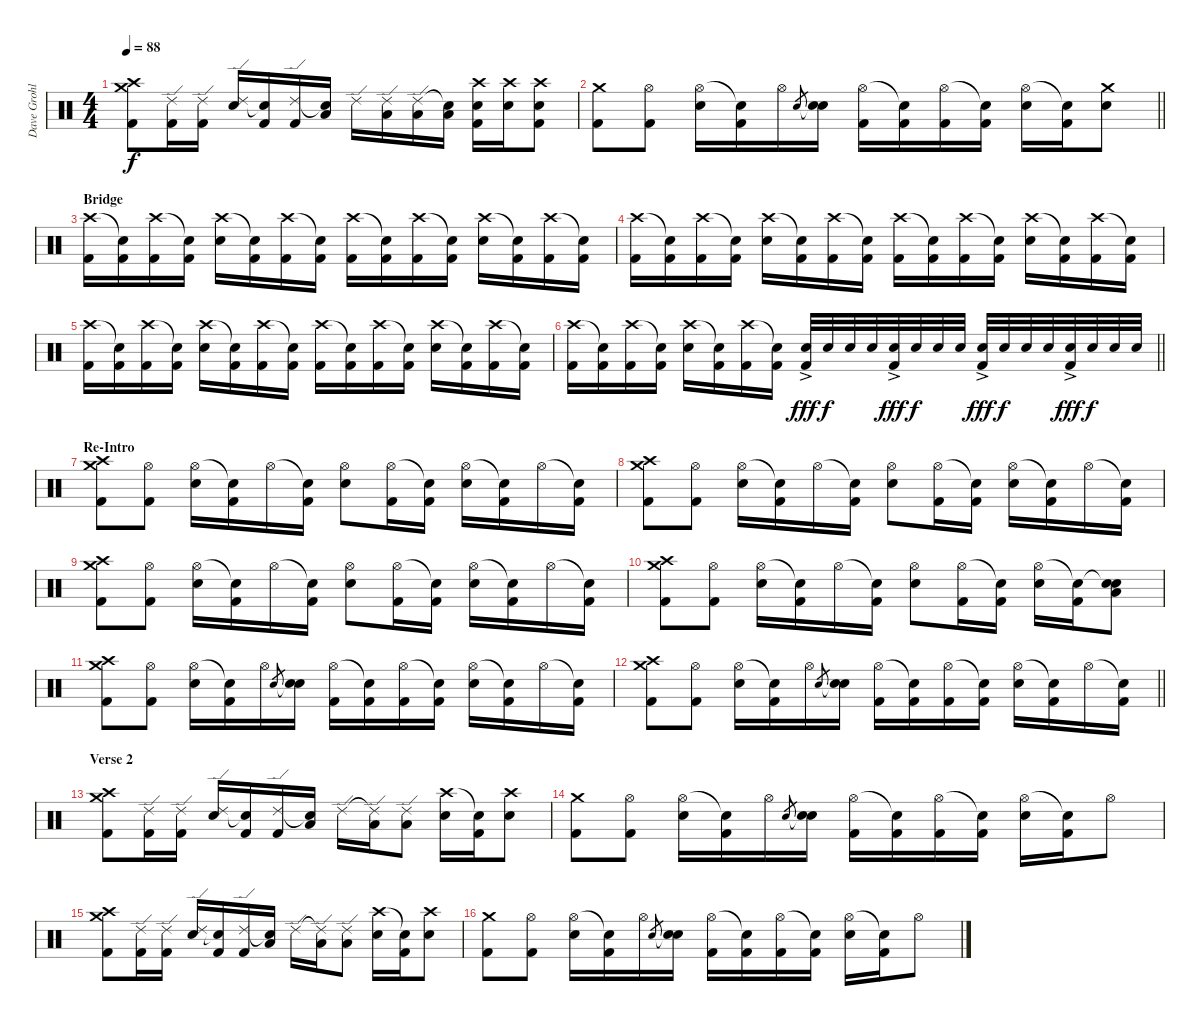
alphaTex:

\track ("Dave Grohl - Drums" "Dave Grohl") {instrument percussion}
\staff {score}
\articulation defaults
\ts (4 4)
\tempo 88
\clef neutral
\ks c
("Crash high (hit)" "Crash medium (hit)" "Kick (hit) 2").8{dy f} ("Ride (edge) 2" "Kick (hit) 2").16 ("Ride (edge) 2" "Kick (hit) 2").16 ("Ride (edge) 2" "Electric Snare (hit)").16 ("Snare (hit)"{t} "Kick (hit) 2").16 ("Ride (edge) 2" "Kick (hit) 2").16 ("Snare (hit)"{t} "Low Tom (hit)").16 "Ride (edge) 2".16 ("Ride (edge) 2" "Low Floor Tom (hit)").16 ("Ride (edge) 2" "Low Floor Tom (hit)").16 ("Snare (hit)"{t} "Low Floor Tom (hit)").16 ("Crash high (hit)" "Electric Snare (hit)" "Kick (hit) 2").16 ("Crash high (hit)" "Electric Snare (hit)").16 ("Crash high (hit)" "Electric Snare (hit)" "Kick (hit) 2").8 |
\barLineRight lightlight
("Crash medium (hit)" "Kick (hit) 2").8 ("Hi-Hat (open)" "Kick (hit) 2").8 ("Hi-Hat (open)" "Electric Snare (hit)").16 ("Snare (hit)"{t} "Kick (hit) 2").16 "Hi-Hat (open)".16 "Electric Snare (hit)".8{gr} ("Snare (hit)"{t} "Electric Snare (hit)").16 ("Hi-Hat (open)" "Kick (hit) 2").16 ("Snare (hit)"{t} "Kick (hit) 2").16 ("Hi-Hat (open)" "Kick (hit) 2").16 ("Snare (hit)"{t} "Kick (hit) 2").16 ("Hi-Hat (open)" "Electric Snare (hit)").16 ("Snare (hit)"{t} "Kick (hit) 2").16 ("Crash medium (hit)" "Electric Snare (hit)").8 |
\section ("" "Bridge")
("Crash high (hit)" "Kick (hit) 2").16 ("Snare (hit)"{t} "Kick (hit) 2").16 ("Crash high (hit)" "Kick (hit) 2").16 ("Snare (hit)"{t} "Kick (hit) 2").16 ("Crash high (hit)" "Electric Snare (hit)").16 ("Snare (hit)"{t} "Kick (hit) 2").16 ("Crash high (hit)" "Kick (hit) 2").16 ("Snare (hit)"{t} "Kick (hit) 2").16 ("Crash high (hit)" "Kick (hit) 2").16 ("Snare (hit)"{t} "Kick (hit) 2").16 ("Crash high (hit)" "Kick (hit) 2").16 ("Snare (hit)"{t} "Kick (hit) 2").16 ("Crash high (hit)" "Electric Snare (hit)").16 ("Snare (hit)"{t} "Kick (hit) 2").16 ("Crash high (hit)" "Kick (hit) 2").16 ("Snare (hit)"{t} "Kick (hit) 2").16 |
("Crash high (hit)" "Kick (hit) 2").16 ("Snare (hit)"{t} "Kick (hit) 2").16 ("Crash high (hit)" "Kick (hit) 2").16 ("Snare (hit)"{t} "Kick (hit) 2").16 ("Crash high (hit)" "Electric Snare (hit)").16 ("Snare (hit)"{t} "Kick (hit) 2").16 ("Crash high (hit)" "Kick (hit) 2").16 ("Snare (hit)"{t} "Kick (hit) 2").16 ("Crash high (hit)" "Kick (hit) 2").16 ("Snare (hit)"{t} "Kick (hit) 2").16 ("Crash high (hit)" "Kick (hit) 2").16 ("Snare (hit)"{t} "Kick (hit) 2").16 ("Crash high (hit)" "Electric Snare (hit)").16 ("Snare (hit)"{t} "Kick (hit) 2").16 ("Crash high (hit)" "Kick (hit) 2").16 ("Snare (hit)"{t} "Kick (hit) 2").16 |
("Crash high (hit)" "Kick (hit) 2").16 ("Snare (hit)"{t} "Kick (hit) 2").16 ("Crash high (hit)" "Kick (hit) 2").16 ("Snare (hit)"{t} "Kick (hit) 2").16 ("Crash high (hit)" "Electric Snare (hit)").16 ("Snare (hit)"{t} "Kick (hit) 2").16 ("Crash high (hit)" "Kick (hit) 2").16 ("Snare (hit)"{t} "Kick (hit) 2").16 ("Crash high (hit)" "Kick (hit) 2").16 ("Snare (hit)"{t} "Kick (hit) 2").16 ("Crash high (hit)" "Kick (hit) 2").16 ("Snare (hit)"{t} "Kick (hit) 2").16 ("Crash high (hit)" "Electric Snare (hit)").16 ("Snare (hit)"{t} "Kick (hit) 2").16 ("Crash high (hit)" "Kick (hit) 2").16 ("Snare (hit)"{t} "Kick (hit) 2").16 |
\barLineRight lightlight
("Crash high (hit)" "Kick (hit) 2").16 ("Snare (hit)"{t} "Kick (hit) 2").16 ("Crash high (hit)" "Kick (hit) 2").16 ("Snare (hit)"{t} "Kick (hit) 2").16 ("Crash high (hit)" "Electric Snare (hit)").16 ("Snare (hit)"{t} "Kick (hit) 2").16 ("Crash high (hit)" "Kick (hit) 2").16 ("Snare (hit)"{t} "Kick (hit) 2").16 ("Electric Snare (hit)"{ac} "Kick (hit) 2").32{dy fff} "Electric Snare (hit)".32{dy f} "Electric Snare (hit)".32 "Electric Snare (hit)".32 ("Electric Snare (hit)"{ac} "Kick (hit) 2").32{dy fff} "Electric Snare (hit)".32{dy f} "Electric Snare (hit)".32 "Electric Snare (hit)".32 ("Electric Snare (hit)"{ac} "Kick (hit) 2").32{dy fff} "Electric Snare (hit)".32{dy f} "Electric Snare (hit)".32 "Electric Snare (hit)".32 ("Electric Snare (hit)"{ac} "Kick (hit) 2").32{dy fff} "Electric Snare (hit)".32{dy f} "Electric Snare (hit)".32 "Electric Snare (hit)".32 |
\section ("" "Re-Intro")
("Crash high (hit)" "Crash medium (hit)" "Kick (hit) 2").8 ("Hi-Hat (open)" "Kick (hit) 2").8 ("Hi-Hat (open)" "Electric Snare (hit)").16 ("Snare (hit)"{t} "Kick (hit) 2").16 "Hi-Hat (open)".16 ("Snare (hit)"{t} "Kick (hit) 2").16 ("Hi-Hat (open)" "Electric Snare (hit)").8 ("Hi-Hat (open)" "Kick (hit) 2").16 ("Snare (hit)"{t} "Kick (hit) 2").16 ("Hi-Hat (open)" "Electric Snare (hit)").16 ("Snare (hit)"{t} "Kick (hit) 2").16 "Hi-Hat (open)".16 ("Snare (hit)"{t} "Kick (hit) 2").16 |
("Crash high (hit)" "Crash medium (hit)" "Kick (hit) 2").8 ("Hi-Hat (open)" "Kick (hit) 2").8 ("Hi-Hat (open)" "Electric Snare (hit)").16 ("Snare (hit)"{t} "Kick (hit) 2").16 "Hi-Hat (open)".16 ("Snare (hit)"{t} "Kick (hit) 2").16 ("Hi-Hat (open)" "Electric Snare (hit)").8 ("Hi-Hat (open)" "Kick (hit) 2").16 ("Snare (hit)"{t} "Kick (hit) 2").16 ("Hi-Hat (open)" "Electric Snare (hit)").16 ("Snare (hit)"{t} "Kick (hit) 2").16 "Hi-Hat (open)".16 ("Snare (hit)"{t} "Kick (hit) 2").16 |
("Crash high (hit)" "Crash medium (hit)" "Kick (hit) 2").8 ("Hi-Hat (open)" "Kick (hit) 2").8 ("Hi-Hat (open)" "Electric Snare (hit)").16 ("Snare (hit)"{t} "Kick (hit) 2").16 "Hi-Hat (open)".16 ("Snare (hit)"{t} "Kick (hit) 2").16 ("Hi-Hat (open)" "Electric Snare (hit)").8 ("Hi-Hat (open)" "Kick (hit) 2").16 ("Snare (hit)"{t} "Kick (hit) 2").16 ("Hi-Hat (open)" "Electric Snare (hit)").16 ("Snare (hit)"{t} "Kick (hit) 2").16 "Hi-Hat (open)".16 ("Snare (hit)"{t} "Kick (hit) 2").16 |
("Crash high (hit)" "Crash medium (hit)" "Kick (hit) 2").8 ("Hi-Hat (open)" "Kick (hit) 2").8 ("Hi-Hat (open)" "Electric Snare (hit)").16 ("Snare (hit)"{t} "Kick (hit) 2").16 "Hi-Hat (open)".16 ("Snare (hit)"{t} "Kick (hit) 2").16 ("Hi-Hat (open)" "Electric Snare (hit)").8 ("Hi-Hat (open)" "Kick (hit) 2").16 ("Snare (hit)"{t} "Kick (hit) 2").16 ("Hi-Hat (open)" "Electric Snare (hit)").16 ("Snare (hit)"{t} "Kick (hit) 2").16 ("Snare (hit)"{t} "Low Floor Tom (hit)" "Electric Snare (hit)").8 |
("Crash high (hit)" "Crash medium (hit)" "Kick (hit) 2").8 ("Hi-Hat (open)" "Kick (hit) 2").8 ("Hi-Hat (open)" "Electric Snare (hit)").16 ("Snare (hit)"{t} "Kick (hit) 2").16 "Hi-Hat (open)".16 "Electric Snare (hit)".8{gr} ("Snare (hit)"{t} "Electric Snare (hit)").16 ("Hi-Hat (open)" "Kick (hit) 2").16 ("Snare (hit)"{t} "Kick (hit) 2").16 ("Hi-Hat (open)" "Kick (hit) 2").16 ("Snare (hit)"{t} "Kick (hit) 2").16 ("Hi-Hat (open)" "Electric Snare (hit)").16 ("Snare (hit)"{t} "Kick (hit) 2").16 "Hi-Hat (open)".16 ("Snare (hit)"{t} "Kick (hit) 2").16 |
\barLineRight lightlight
("Crash high (hit)" "Crash medium (hit)" "Kick (hit) 2").8 ("Hi-Hat (open)" "Kick (hit) 2").8 ("Hi-Hat (open)" "Electric Snare (hit)").16 ("Snare (hit)"{t} "Kick (hit) 2").16 "Hi-Hat (open)".16 "Electric Snare (hit)".8{gr} ("Snare (hit)"{t} "Electric Snare (hit)").16 ("Hi-Hat (open)" "Kick (hit) 2").16 ("Snare (hit)"{t} "Kick (hit) 2").16 ("Hi-Hat (open)" "Kick (hit) 2").16 ("Snare (hit)"{t} "Kick (hit) 2").16 ("Hi-Hat (open)" "Electric Snare (hit)").16 ("Snare (hit)"{t} "Kick (hit) 2").16 "Hi-Hat (open)".16 ("Snare (hit)"{t} "Kick (hit) 2").16 |
\section ("" "Verse 2")
("Crash high (hit)" "Crash medium (hit)" "Kick (hit) 2").8 ("Ride (edge) 2" "Kick (hit) 2").16 ("Ride (edge) 2" "Kick (hit) 2").16 ("Ride (edge) 2" "Electric Snare (hit)").16 ("Snare (hit)"{t} "Kick (hit) 2").16 ("Ride (edge) 2" "Kick (hit) 2").16 ("Snare (hit)"{t} "Low Tom (hit)").16 "Ride (edge) 2".16 ("Ride (edge) 2"{t} "Low Floor Tom (hit)").16 ("Ride (edge) 2" "Low Floor Tom (hit)").8 ("Crash high (hit)" "Electric Snare (hit)").16 ("Snare (hit)"{t} "Kick (hit) 2").16 ("Crash high (hit)" "Electric Snare (hit)").8 |
("Crash medium (hit)" "Kick (hit) 2").8 ("Hi-Hat (open)" "Kick (hit) 2").8 ("Hi-Hat (open)" "Electric Snare (hit)").16 ("Snare (hit)"{t} "Kick (hit) 2").16 "Hi-Hat (open)".16 "Electric Snare (hit)".8{gr} ("Snare (hit)"{t} "Electric Snare (hit)").16 ("Hi-Hat (open)" "Kick (hit) 2").16 ("Snare (hit)"{t} "Kick (hit) 2").16 ("Hi-Hat (open)" "Kick (hit) 2").16 ("Snare (hit)"{t} "Kick (hit) 2").16 ("Hi-Hat (open)" "Electric Snare (hit)").16 ("Snare (hit)"{t} "Kick (hit) 2").16 "Hi-Hat (open)".8 |
("Crash high (hit)" "Crash medium (hit)" "Kick (hit) 2").8 ("Ride (edge) 2" "Kick (hit) 2").16 ("Ride (edge) 2" "Kick (hit) 2").16 ("Ride (edge) 2" "Electric Snare (hit)").16 ("Snare (hit)"{t} "Kick (hit) 2").16 ("Ride (edge) 2" "Kick (hit) 2").16 ("Snare (hit)"{t} "Low Tom (hit)").16 "Ride (edge) 2".16 ("Ride (edge) 2"{t} "Low Floor Tom (hit)").16 ("Ride (edge) 2" "Low Floor Tom (hit)").8 ("Crash high (hit)" "Electric Snare (hit)").16 ("Snare (hit)"{t} "Kick (hit) 2").16 ("Crash high (hit)" "Electric Snare (hit)").8 |
("Crash medium (hit)" "Kick (hit) 2").8 ("Hi-Hat (open)" "Kick (hit) 2").8 ("Hi-Hat (open)" "Electric Snare (hit)").16 ("Snare (hit)"{t} "Kick (hit) 2").16 "Hi-Hat (open)".16 "Electric Snare (hit)".8{gr} ("Snare (hit)"{t} "Electric Snare (hit)").16 ("Hi-Hat (open)" "Kick (hit) 2").16 ("Snare (hit)"{t} "Kick (hit) 2").16 ("Hi-Hat (open)" "Kick (hit) 2").16 ("Snare (hit)"{t} "Kick (hit) 2").16 ("Hi-Hat (open)" "Electric Snare (hit)").16 ("Snare (hit)"{t} "Kick (hit) 2").16 "Hi-Hat (open)".8
